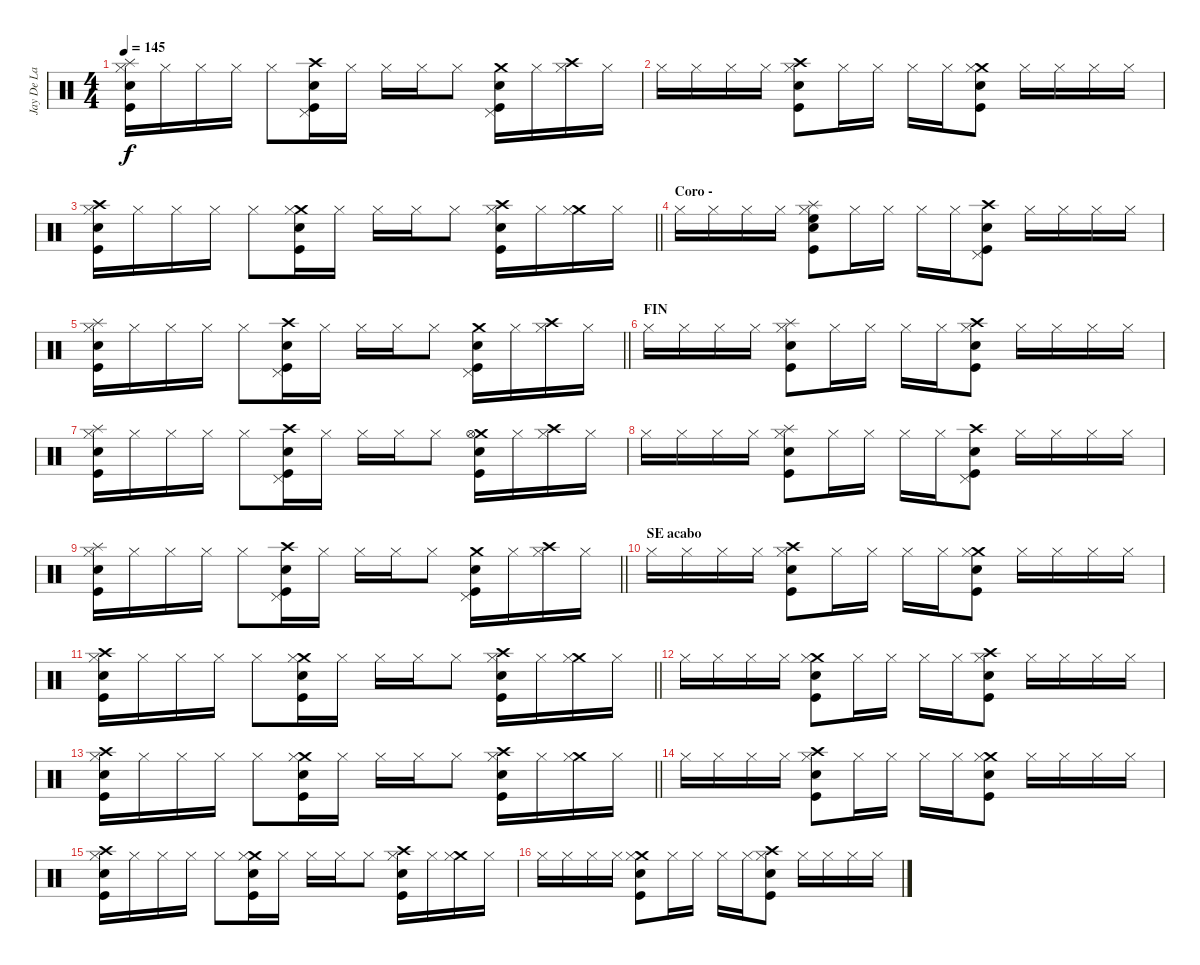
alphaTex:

\track ("Jay De La Cueva o C. G." "Jay De La ") {instrument percussion}
\staff {score}
\articulation defaults
\ts (4 4)
\tempo 145
\clef neutral
\ks c
("Splash (hit)" "Snare (hit) 2" "Hi-Hat (closed)" "Kick (hit)").16{dy f} "Hi-Hat (closed)".16 "Hi-Hat (closed)".16 "Hi-Hat (closed)".16 "Hi-Hat (closed)".8 ("Crash high (hit)" "Snare (hit) 2" "Pedal Hi-Hat (hit)" "Kick (hit)").16 "Hi-Hat (closed)".16 "Hi-Hat (closed)".16 "Hi-Hat (closed)".16 "Hi-Hat (closed)".8 ("Crash medium (hit)" "Snare (hit) 2" "Pedal Hi-Hat (hit)" "Kick (hit)").16 "Hi-Hat (closed)".16 ("Crash high (hit)" "Hi-Hat (closed)").16 "Hi-Hat (closed)".16 |
"Hi-Hat (closed)".16 "Hi-Hat (closed)".16 "Hi-Hat (closed)".16 "Hi-Hat (closed)".16 ("Crash high (hit)" "Snare (hit) 2" "Hi-Hat (closed)" "Kick (hit)").8 "Hi-Hat (closed)".16 "Hi-Hat (closed)".16 "Hi-Hat (closed)".16 "Hi-Hat (closed)".16 ("Crash medium (hit)" "Snare (hit) 2" "Hi-Hat (closed)" "Kick (hit)").8 "Hi-Hat (closed)".16 "Hi-Hat (closed)".16 "Hi-Hat (closed)".16 "Hi-Hat (closed)".16 |
\barLineRight lightlight
("Crash high (hit)" "Snare (hit) 2" "Hi-Hat (closed)" "Kick (hit)").16 "Hi-Hat (closed)".16 "Hi-Hat (closed)".16 "Hi-Hat (closed)".16 "Hi-Hat (closed)".8 ("Crash medium (hit)" "Snare (hit) 2" "Hi-Hat (closed)" "Kick (hit)").16 "Hi-Hat (closed)".16 "Hi-Hat (closed)".16 "Hi-Hat (closed)".16 "Hi-Hat (closed)".8 ("Crash high (hit)" "Snare (hit) 2" "Hi-Hat (closed)" "Kick (hit)").16 "Hi-Hat (closed)".16 ("Crash medium (hit)" "Hi-Hat (closed)").16 "Hi-Hat (closed)".16 |
\section ("" "Coro - ")
"Hi-Hat (closed)".16 "Hi-Hat (closed)".16 "Hi-Hat (closed)".16 "Hi-Hat (closed)".16 ("Splash (hit)" "Snare (hit) 2" "Hi-Hat (closed)" "Kick (hit)" "High Floor Tom (hit)").8 "Hi-Hat (closed)".16 "Hi-Hat (closed)".16 "Hi-Hat (closed)".16 "Hi-Hat (closed)".16 ("Crash high (hit)" "Snare (hit) 2" "Pedal Hi-Hat (hit)" "Kick (hit)").8 "Hi-Hat (closed)".16 "Hi-Hat (closed)".16 "Hi-Hat (closed)".16 "Hi-Hat (closed)".16 |
\barLineRight lightlight
("Splash (hit)" "Snare (hit) 2" "Hi-Hat (closed)" "Kick (hit)").16 "Hi-Hat (closed)".16 "Hi-Hat (closed)".16 "Hi-Hat (closed)".16 "Hi-Hat (closed)".8 ("Crash high (hit)" "Snare (hit) 2" "Pedal Hi-Hat (hit)" "Kick (hit)").16 "Hi-Hat (closed)".16 "Hi-Hat (closed)".16 "Hi-Hat (closed)".16 "Hi-Hat (closed)".8 ("Crash medium (hit)" "Snare (hit) 2" "Pedal Hi-Hat (hit)" "Kick (hit)").16 "Hi-Hat (closed)".16 ("Crash high (hit)" "Hi-Hat (closed)").16 "Hi-Hat (closed)".16 |
\section ("" "FIN")
"Hi-Hat (closed)".16 "Hi-Hat (closed)".16 "Hi-Hat (closed)".16 "Hi-Hat (closed)".16 ("Splash (hit)" "Snare (hit) 2" "Hi-Hat (closed)" "Kick (hit)").8 "Hi-Hat (closed)".16 "Hi-Hat (closed)".16 "Hi-Hat (closed)".16 "Hi-Hat (closed)".16 ("Crash high (hit)" "Snare (hit) 2" "Hi-Hat (closed)" "Kick (hit)").8 "Hi-Hat (closed)".16 "Hi-Hat (closed)".16 "Hi-Hat (closed)".16 "Hi-Hat (closed)".16 |
("Splash (hit)" "Snare (hit) 2" "Hi-Hat (closed)" "Kick (hit)").16 "Hi-Hat (closed)".16 "Hi-Hat (closed)".16 "Hi-Hat (closed)".16 "Hi-Hat (closed)".8 ("Crash high (hit)" "Snare (hit) 2" "Pedal Hi-Hat (hit)" "Kick (hit)").16 "Hi-Hat (closed)".16 "Hi-Hat (closed)".16 "Hi-Hat (closed)".16 "Hi-Hat (closed)".8 ("Crash medium (hit)" "Snare (hit) 2" "Hi-Hat (open)" "Kick (hit)").16 "Hi-Hat (closed)".16 ("Crash high (hit)" "Hi-Hat (closed)").16 "Hi-Hat (closed)".16 |
"Hi-Hat (closed)".16 "Hi-Hat (closed)".16 "Hi-Hat (closed)".16 "Hi-Hat (closed)".16 ("Splash (hit)" "Snare (hit) 2" "Hi-Hat (closed)" "Kick (hit)").8 "Hi-Hat (closed)".16 "Hi-Hat (closed)".16 "Hi-Hat (closed)".16 "Hi-Hat (closed)".16 ("Crash high (hit)" "Snare (hit) 2" "Pedal Hi-Hat (hit)" "Kick (hit)").8 "Hi-Hat (closed)".16 "Hi-Hat (closed)".16 "Hi-Hat (closed)".16 "Hi-Hat (closed)".16 |
\barLineRight lightlight
("Splash (hit)" "Snare (hit) 2" "Hi-Hat (closed)" "Kick (hit)").16 "Hi-Hat (closed)".16 "Hi-Hat (closed)".16 "Hi-Hat (closed)".16 "Hi-Hat (closed)".8 ("Crash high (hit)" "Snare (hit) 2" "Pedal Hi-Hat (hit)" "Kick (hit)").16 "Hi-Hat (closed)".16 "Hi-Hat (closed)".16 "Hi-Hat (closed)".16 "Hi-Hat (closed)".8 ("Crash medium (hit)" "Snare (hit) 2" "Pedal Hi-Hat (hit)" "Kick (hit)").16 "Hi-Hat (closed)".16 ("Crash high (hit)" "Hi-Hat (closed)").16 "Hi-Hat (closed)".16 |
\section ("" "SE acabo")
"Hi-Hat (closed)".16 "Hi-Hat (closed)".16 "Hi-Hat (closed)".16 "Hi-Hat (closed)".16 ("Crash high (hit)" "Snare (hit) 2" "Hi-Hat (closed)" "Kick (hit)").8 "Hi-Hat (closed)".16 "Hi-Hat (closed)".16 "Hi-Hat (closed)".16 "Hi-Hat (closed)".16 ("Crash medium (hit)" "Snare (hit) 2" "Hi-Hat (closed)" "Kick (hit)").8 "Hi-Hat (closed)".16 "Hi-Hat (closed)".16 "Hi-Hat (closed)".16 "Hi-Hat (closed)".16 |
\barLineRight lightlight
("Crash high (hit)" "Snare (hit) 2" "Hi-Hat (closed)" "Kick (hit)").16 "Hi-Hat (closed)".16 "Hi-Hat (closed)".16 "Hi-Hat (closed)".16 "Hi-Hat (closed)".8 ("Crash medium (hit)" "Snare (hit) 2" "Hi-Hat (closed)" "Kick (hit)").16 "Hi-Hat (closed)".16 "Hi-Hat (closed)".16 "Hi-Hat (closed)".16 "Hi-Hat (closed)".8 ("Crash high (hit)" "Snare (hit) 2" "Hi-Hat (closed)" "Kick (hit)").16 "Hi-Hat (closed)".16 ("Crash medium (hit)" "Hi-Hat (closed)").16 "Hi-Hat (closed)".16 |
"Hi-Hat (closed)".16 "Hi-Hat (closed)".16 "Hi-Hat (closed)".16 "Hi-Hat (closed)".16 ("Crash medium (hit)" "Snare (hit) 2" "Hi-Hat (closed)" "Kick (hit)").8 "Hi-Hat (closed)".16 "Hi-Hat (closed)".16 "Hi-Hat (closed)".16 "Hi-Hat (closed)".16 ("Crash high (hit)" "Snare (hit) 2" "Hi-Hat (closed)" "Kick (hit)").8 "Hi-Hat (closed)".16 "Hi-Hat (closed)".16 "Hi-Hat (closed)".16 "Hi-Hat (closed)".16 |
\barLineRight lightlight
("Crash high (hit)" "Snare (hit) 2" "Hi-Hat (closed)" "Kick (hit)").16 "Hi-Hat (closed)".16 "Hi-Hat (closed)".16 "Hi-Hat (closed)".16 "Hi-Hat (closed)".8 ("Crash medium (hit)" "Snare (hit) 2" "Hi-Hat (closed)" "Kick (hit)").16 "Hi-Hat (closed)".16 "Hi-Hat (closed)".16 "Hi-Hat (closed)".16 "Hi-Hat (closed)".8 ("Crash high (hit)" "Snare (hit) 2" "Hi-Hat (closed)" "Kick (hit)").16 "Hi-Hat (closed)".16 ("Crash medium (hit)" "Hi-Hat (closed)").16 "Hi-Hat (closed)".16 |
"Hi-Hat (closed)".16 "Hi-Hat (closed)".16 "Hi-Hat (closed)".16 "Hi-Hat (closed)".16 ("Crash high (hit)" "Snare (hit) 2" "Hi-Hat (closed)" "Kick (hit)").8 "Hi-Hat (closed)".16 "Hi-Hat (closed)".16 "Hi-Hat (closed)".16 "Hi-Hat (closed)".16 ("Crash medium (hit)" "Snare (hit) 2" "Hi-Hat (closed)" "Kick (hit)").8 "Hi-Hat (closed)".16 "Hi-Hat (closed)".16 "Hi-Hat (closed)".16 "Hi-Hat (closed)".16 |
("Crash high (hit)" "Snare (hit) 2" "Hi-Hat (closed)" "Kick (hit)").16 "Hi-Hat (closed)".16 "Hi-Hat (closed)".16 "Hi-Hat (closed)".16 "Hi-Hat (closed)".8 ("Crash medium (hit)" "Snare (hit) 2" "Hi-Hat (closed)" "Kick (hit)").16 "Hi-Hat (closed)".16 "Hi-Hat (closed)".16 "Hi-Hat (closed)".16 "Hi-Hat (closed)".8 ("Crash high (hit)" "Snare (hit) 2" "Hi-Hat (closed)" "Kick (hit)").16 "Hi-Hat (closed)".16 ("Crash medium (hit)" "Hi-Hat (closed)").16 "Hi-Hat (closed)".16 |
"Hi-Hat (closed)".16 "Hi-Hat (closed)".16 "Hi-Hat (closed)".16 "Hi-Hat (closed)".16 ("Crash medium (hit)" "Snare (hit) 2" "Hi-Hat (closed)" "Kick (hit)").8 "Hi-Hat (closed)".16 "Hi-Hat (closed)".16 "Hi-Hat (closed)".16 "Hi-Hat (closed)".16 ("Crash high (hit)" "Snare (hit) 2" "Hi-Hat (closed)" "Kick (hit)").8 "Hi-Hat (closed)".16 "Hi-Hat (closed)".16 "Hi-Hat (closed)".16 "Hi-Hat (closed)".16
